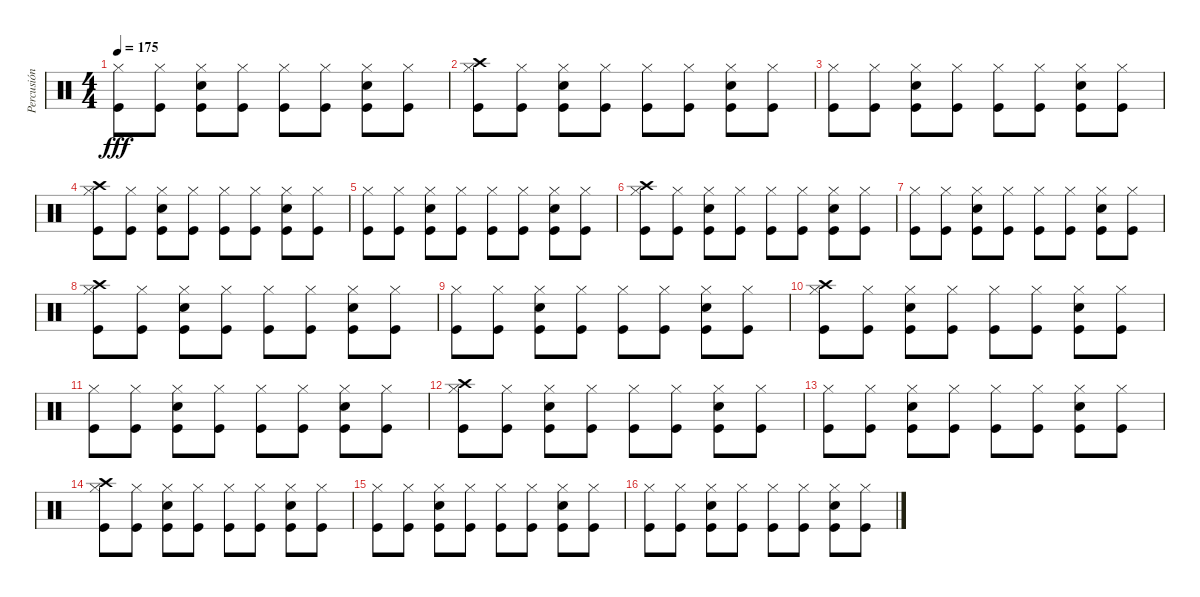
\track ("Percusión" "Percusión") {instrument percussion}
\staff {score}
\articulation defaults
\ts (4 4)
\tempo 175
\clef neutral
\ks c
("Kick (hit)" "Hi-Hat (closed)").8{dy fff} ("Kick (hit)" "Hi-Hat (closed)").8 ("Snare (hit) 2" "Kick (hit)" "Hi-Hat (closed)").8 ("Kick (hit)" "Hi-Hat (closed)").8 ("Kick (hit)" "Hi-Hat (closed)").8 ("Kick (hit)" "Hi-Hat (closed)").8 ("Snare (hit) 2" "Kick (hit)" "Hi-Hat (closed)").8 ("Kick (hit)" "Hi-Hat (closed)").8 |
("Kick (hit)" "Crash high (hit)" "Hi-Hat (closed)").8 ("Kick (hit)" "Hi-Hat (closed)").8 ("Kick (hit)" "Snare (hit) 2" "Hi-Hat (closed)").8 ("Hi-Hat (closed)" "Kick (hit)").8 ("Kick (hit)" "Hi-Hat (closed)").8 ("Kick (hit)" "Hi-Hat (closed)").8 ("Snare (hit) 2" "Kick (hit)" "Hi-Hat (closed)").8 ("Kick (hit)" "Hi-Hat (closed)").8 |
("Kick (hit)" "Hi-Hat (closed)").8 ("Kick (hit)" "Hi-Hat (closed)").8 ("Snare (hit) 2" "Kick (hit)" "Hi-Hat (closed)").8 ("Kick (hit)" "Hi-Hat (closed)").8 ("Kick (hit)" "Hi-Hat (closed)").8 ("Kick (hit)" "Hi-Hat (closed)").8 ("Snare (hit) 2" "Kick (hit)" "Hi-Hat (closed)").8 ("Kick (hit)" "Hi-Hat (closed)").8 |
("Kick (hit)" "Crash high (hit)" "Hi-Hat (closed)").8 ("Kick (hit)" "Hi-Hat (closed)").8 ("Kick (hit)" "Snare (hit) 2" "Hi-Hat (closed)").8 ("Hi-Hat (closed)" "Kick (hit)").8 ("Kick (hit)" "Hi-Hat (closed)").8 ("Kick (hit)" "Hi-Hat (closed)").8 ("Snare (hit) 2" "Kick (hit)" "Hi-Hat (closed)").8 ("Kick (hit)" "Hi-Hat (closed)").8 |
("Kick (hit)" "Hi-Hat (closed)").8 ("Kick (hit)" "Hi-Hat (closed)").8 ("Snare (hit) 2" "Kick (hit)" "Hi-Hat (closed)").8 ("Kick (hit)" "Hi-Hat (closed)").8 ("Kick (hit)" "Hi-Hat (closed)").8 ("Kick (hit)" "Hi-Hat (closed)").8 ("Snare (hit) 2" "Kick (hit)" "Hi-Hat (closed)").8 ("Kick (hit)" "Hi-Hat (closed)").8 |
("Kick (hit)" "Crash high (hit)" "Hi-Hat (closed)").8 ("Kick (hit)" "Hi-Hat (closed)").8 ("Kick (hit)" "Snare (hit) 2" "Hi-Hat (closed)").8 ("Hi-Hat (closed)" "Kick (hit)").8 ("Kick (hit)" "Hi-Hat (closed)").8 ("Kick (hit)" "Hi-Hat (closed)").8 ("Snare (hit) 2" "Kick (hit)" "Hi-Hat (closed)").8 ("Kick (hit)" "Hi-Hat (closed)").8 |
("Kick (hit)" "Hi-Hat (closed)").8 ("Kick (hit)" "Hi-Hat (closed)").8 ("Snare (hit) 2" "Kick (hit)" "Hi-Hat (closed)").8 ("Kick (hit)" "Hi-Hat (closed)").8 ("Kick (hit)" "Hi-Hat (closed)").8 ("Kick (hit)" "Hi-Hat (closed)").8 ("Snare (hit) 2" "Kick (hit)" "Hi-Hat (closed)").8 ("Kick (hit)" "Hi-Hat (closed)").8 |
("Kick (hit)" "Crash high (hit)" "Hi-Hat (closed)").8 ("Kick (hit)" "Hi-Hat (closed)").8 ("Kick (hit)" "Snare (hit) 2" "Hi-Hat (closed)").8 ("Hi-Hat (closed)" "Kick (hit)").8 ("Kick (hit)" "Hi-Hat (closed)").8 ("Kick (hit)" "Hi-Hat (closed)").8 ("Snare (hit) 2" "Kick (hit)" "Hi-Hat (closed)").8 ("Kick (hit)" "Hi-Hat (closed)").8 |
("Kick (hit)" "Hi-Hat (closed)").8 ("Kick (hit)" "Hi-Hat (closed)").8 ("Snare (hit) 2" "Kick (hit)" "Hi-Hat (closed)").8 ("Kick (hit)" "Hi-Hat (closed)").8 ("Kick (hit)" "Hi-Hat (closed)").8 ("Kick (hit)" "Hi-Hat (closed)").8 ("Snare (hit) 2" "Kick (hit)" "Hi-Hat (closed)").8 ("Kick (hit)" "Hi-Hat (closed)").8 |
("Kick (hit)" "Crash high (hit)" "Hi-Hat (closed)").8 ("Kick (hit)" "Hi-Hat (closed)").8 ("Kick (hit)" "Snare (hit) 2" "Hi-Hat (closed)").8 ("Hi-Hat (closed)" "Kick (hit)").8 ("Kick (hit)" "Hi-Hat (closed)").8 ("Kick (hit)" "Hi-Hat (closed)").8 ("Snare (hit) 2" "Kick (hit)" "Hi-Hat (closed)").8 ("Kick (hit)" "Hi-Hat (closed)").8 |
("Kick (hit)" "Hi-Hat (closed)").8 ("Kick (hit)" "Hi-Hat (closed)").8 ("Snare (hit) 2" "Kick (hit)" "Hi-Hat (closed)").8 ("Kick (hit)" "Hi-Hat (closed)").8 ("Kick (hit)" "Hi-Hat (closed)").8 ("Kick (hit)" "Hi-Hat (closed)").8 ("Snare (hit) 2" "Kick (hit)" "Hi-Hat (closed)").8 ("Kick (hit)" "Hi-Hat (closed)").8 |
("Kick (hit)" "Crash high (hit)" "Hi-Hat (closed)").8 ("Kick (hit)" "Hi-Hat (closed)").8 ("Kick (hit)" "Snare (hit) 2" "Hi-Hat (closed)").8 ("Hi-Hat (closed)" "Kick (hit)").8 ("Kick (hit)" "Hi-Hat (closed)").8 ("Kick (hit)" "Hi-Hat (closed)").8 ("Snare (hit) 2" "Kick (hit)" "Hi-Hat (closed)").8 ("Kick (hit)" "Hi-Hat (closed)").8 |
("Kick (hit)" "Hi-Hat (closed)").8 ("Kick (hit)" "Hi-Hat (closed)").8 ("Snare (hit) 2" "Kick (hit)" "Hi-Hat (closed)").8 ("Kick (hit)" "Hi-Hat (closed)").8 ("Kick (hit)" "Hi-Hat (closed)").8 ("Kick (hit)" "Hi-Hat (closed)").8 ("Snare (hit) 2" "Kick (hit)" "Hi-Hat (closed)").8 ("Kick (hit)" "Hi-Hat (closed)").8 |
("Kick (hit)" "Crash high (hit)" "Hi-Hat (closed)").8 ("Kick (hit)" "Hi-Hat (closed)").8 ("Kick (hit)" "Snare (hit) 2" "Hi-Hat (closed)").8 ("Hi-Hat (closed)" "Kick (hit)").8 ("Kick (hit)" "Hi-Hat (closed)").8 ("Kick (hit)" "Hi-Hat (closed)").8 ("Snare (hit) 2" "Kick (hit)" "Hi-Hat (closed)").8 ("Kick (hit)" "Hi-Hat (closed)").8 |
("Kick (hit)" "Hi-Hat (closed)").8 ("Kick (hit)" "Hi-Hat (closed)").8 ("Snare (hit) 2" "Kick (hit)" "Hi-Hat (closed)").8 ("Kick (hit)" "Hi-Hat (closed)").8 ("Kick (hit)" "Hi-Hat (closed)").8 ("Kick (hit)" "Hi-Hat (closed)").8 ("Snare (hit) 2" "Kick (hit)" "Hi-Hat (closed)").8 ("Kick (hit)" "Hi-Hat (closed)").8 |
("Kick (hit)" "Hi-Hat (closed)").8 ("Kick (hit)" "Hi-Hat (closed)").8 ("Snare (hit) 2" "Kick (hit)" "Hi-Hat (closed)").8 ("Kick (hit)" "Hi-Hat (closed)").8 ("Kick (hit)" "Hi-Hat (closed)").8 ("Kick (hit)" "Hi-Hat (closed)").8 ("Snare (hit) 2" "Kick (hit)" "Hi-Hat (closed)").8 ("Kick (hit)" "Hi-Hat (closed)").8
